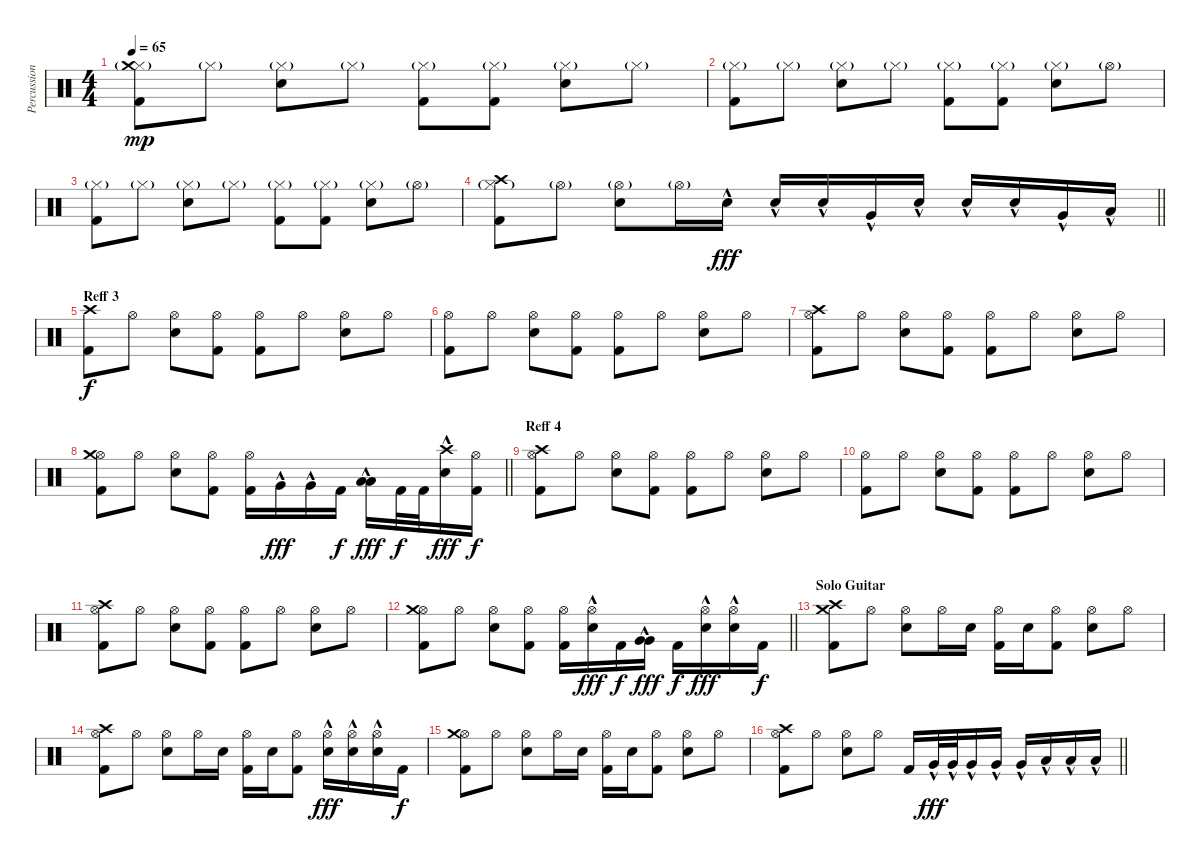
\track ("Percussion" "Percussion") {instrument percussion}
\staff {score}
\articulation defaults
\ts (4 4)
\tempo 65
\clef neutral
\ks c
("Hi-Hat (closed)"{g} "Crash medium (hit)" "Kick (hit) 2").8{dy mp} "Hi-Hat (closed)"{g}.8 ("Hi-Hat (closed)"{g} "Electric Snare (hit)").8 "Hi-Hat (closed)"{g}.8 ("Hi-Hat (closed)"{g} "Kick (hit) 2").8 ("Hi-Hat (closed)"{g} "Kick (hit) 2").8 ("Hi-Hat (closed)"{g} "Electric Snare (hit)").8 "Hi-Hat (closed)"{g}.8 |
("Hi-Hat (closed)"{g} "Kick (hit) 2").8 "Hi-Hat (closed)"{g}.8 ("Hi-Hat (closed)"{g} "Electric Snare (hit)").8 "Hi-Hat (closed)"{g}.8 ("Hi-Hat (closed)"{g} "Kick (hit) 2").8 ("Hi-Hat (closed)"{g} "Kick (hit) 2").8 ("Hi-Hat (closed)"{g} "Electric Snare (hit)").8 "Hi-Hat (open)"{g}.8 |
("Hi-Hat (closed)"{g} "Kick (hit) 2").8 "Hi-Hat (closed)"{g}.8 ("Hi-Hat (closed)"{g} "Electric Snare (hit)").8 "Hi-Hat (closed)"{g}.8 ("Hi-Hat (closed)"{g} "Kick (hit) 2").8 ("Hi-Hat (closed)"{g} "Kick (hit) 2").8 ("Hi-Hat (closed)"{g} "Electric Snare (hit)").8 "Hi-Hat (open)"{g}.8 |
\barLineRight lightlight
("Hi-Hat (closed)"{g} "Crash high (hit)" "Kick (hit) 2").8 "Hi-Hat (open)"{g}.8 ("Hi-Hat (open)"{g} "Electric Snare (hit)").8 "Hi-Hat (open)"{g}.16 "Electric Snare (hit)"{hac}.16{dy fff} "Electric Snare (hit)"{hac}.16 "Electric Snare (hit)"{hac}.16 "Very Low Tom (hit)"{hac}.16 "Electric Snare (hit)"{hac}.16 "Electric Snare (hit)"{hac}.16 "Electric Snare (hit)"{hac}.16 "Very Low Tom (hit)"{hac}.16 "Low Floor Tom (hit)"{hac}.16 |
\section ("" "Reff 3")
("Crash high (hit)" "Kick (hit) 2").8{dy f} "Hi-Hat (open)".8 ("Hi-Hat (open)" "Electric Snare (hit)").8 ("Hi-Hat (open)" "Kick (hit) 2").8 ("Hi-Hat (open)" "Kick (hit) 2").8 "Hi-Hat (open)".8 ("Hi-Hat (open)" "Electric Snare (hit)").8 "Hi-Hat (open)".8 |
("Hi-Hat (open)" "Kick (hit) 2").8 "Hi-Hat (open)".8 ("Hi-Hat (open)" "Electric Snare (hit)").8 ("Hi-Hat (open)" "Kick (hit) 2").8 ("Hi-Hat (open)" "Kick (hit) 2").8 "Hi-Hat (open)".8 ("Hi-Hat (open)" "Electric Snare (hit)").8 "Hi-Hat (open)".8 |
("Hi-Hat (open)" "Crash high (hit)" "Kick (hit) 2").8 "Hi-Hat (open)".8 ("Hi-Hat (open)" "Electric Snare (hit)").8 ("Hi-Hat (open)" "Kick (hit) 2").8 ("Hi-Hat (open)" "Kick (hit) 2").8 "Hi-Hat (open)".8 ("Hi-Hat (open)" "Electric Snare (hit)").8 "Hi-Hat (open)".8 |
\barLineRight lightlight
("Hi-Hat (open)" "Crash medium (hit)" "Kick (hit) 2").8 "Hi-Hat (open)".8 ("Hi-Hat (open)" "Electric Snare (hit)").8 ("Hi-Hat (open)" "Kick (hit) 2").8 ("Hi-Hat (open)" "Kick (hit) 2").16 "Very Low Tom (hit)"{hac}.16{dy fff} "Very Low Tom (hit)"{hac}.16 "Kick (hit) 2".16{dy f} ("Low Floor Tom (hit)"{hac} "Low Floor Tom (hit)"{hac}).16{bd 60 dy fff} "Kick (hit) 2".32{dy f} "Kick (hit) 2".32 ("Crash high (hit)" "Electric Snare (hit)"{hac}).16{dy fff} ("Hi-Hat (open)" "Kick (hit) 2").16{dy f} |
\section ("" "Reff 4")
("Hi-Hat (open)" "Crash high (hit)" "Kick (hit) 2").8 "Hi-Hat (open)".8 ("Hi-Hat (open)" "Electric Snare (hit)").8 ("Hi-Hat (open)" "Kick (hit) 2").8 ("Hi-Hat (open)" "Kick (hit) 2").8 "Hi-Hat (open)".8 ("Hi-Hat (open)" "Electric Snare (hit)").8 "Hi-Hat (open)".8 |
("Hi-Hat (open)" "Kick (hit) 2").8 "Hi-Hat (open)".8 ("Hi-Hat (open)" "Electric Snare (hit)").8 ("Hi-Hat (open)" "Kick (hit) 2").8 ("Hi-Hat (open)" "Kick (hit) 2").8 "Hi-Hat (open)".8 ("Hi-Hat (open)" "Electric Snare (hit)").8 "Hi-Hat (open)".8 |
("Hi-Hat (open)" "Crash high (hit)" "Kick (hit) 2").8 "Hi-Hat (open)".8 ("Hi-Hat (open)" "Electric Snare (hit)").8 ("Hi-Hat (open)" "Kick (hit) 2").8 ("Hi-Hat (open)" "Kick (hit) 2").8 "Hi-Hat (open)".8 ("Hi-Hat (open)" "Electric Snare (hit)").8 "Hi-Hat (open)".8 |
\barLineRight lightlight
("Hi-Hat (open)" "Crash medium (hit)" "Kick (hit) 2").8 "Hi-Hat (open)".8 ("Hi-Hat (open)" "Electric Snare (hit)").8 ("Hi-Hat (open)" "Kick (hit) 2").8 ("Hi-Hat (open)" "Kick (hit) 2").16 ("Hi-Hat (open)" "Electric Snare (hit)"{hac}).16{dy fff} "Kick (hit) 2".16{dy f} ("Very Low Tom (hit)"{hac} "Very Low Tom (hit)"{hac}).16{bd 60 dy fff} "Kick (hit) 2".16{dy f} ("Hi-Hat (open)" "Electric Snare (hit)"{hac}).16{dy fff} ("Hi-Hat (open)" "Electric Snare (hit)"{hac}).16 "Kick (hit) 2".16{dy f} |
\section ("" "Solo Guitar")
("Crash high (hit)" "Crash medium (hit)" "Kick (hit) 2").8 "Hi-Hat (open)".8 ("Hi-Hat (open)" "Electric Snare (hit)").8 "Hi-Hat (open)".16 "Electric Snare (hit)".16 ("Hi-Hat (open)" "Kick (hit) 2").16 "Electric Snare (hit)".16 ("Hi-Hat (open)" "Kick (hit) 2").8 ("Hi-Hat (open)" "Electric Snare (hit)").8 "Hi-Hat (open)".8 |
("Hi-Hat (open)" "Crash high (hit)" "Kick (hit) 2").8 "Hi-Hat (open)".8 ("Hi-Hat (open)" "Electric Snare (hit)").8 "Hi-Hat (open)".16 "Electric Snare (hit)".16 ("Hi-Hat (open)" "Kick (hit) 2").16 "Electric Snare (hit)".16 ("Hi-Hat (open)" "Kick (hit) 2").8 ("Hi-Hat (open)" "Electric Snare (hit)"{hac}).16{dy fff} ("Hi-Hat (open)" "Electric Snare (hit)"{hac}).16 ("Hi-Hat (open)" "Electric Snare (hit)"{hac}).16 "Kick (hit) 2".16{dy f} |
("Hi-Hat (open)" "Crash medium (hit)" "Kick (hit) 2").8 "Hi-Hat (open)".8 ("Hi-Hat (open)" "Electric Snare (hit)").8 "Hi-Hat (open)".16 "Electric Snare (hit)".16 ("Hi-Hat (open)" "Kick (hit) 2").16 "Electric Snare (hit)".16 ("Hi-Hat (open)" "Kick (hit) 2").8 ("Hi-Hat (open)" "Electric Snare (hit)").8 "Hi-Hat (open)".8 |
\barLineRight lightlight
("Hi-Hat (open)" "Crash high (hit)" "Kick (hit) 2").8 "Hi-Hat (open)".8 ("Hi-Hat (open)" "Electric Snare (hit)").8 "Hi-Hat (open)".8 "Kick (hit) 2".16 "Very Low Tom (hit)"{hac}.32{dy fff} "Very Low Tom (hit)"{hac}.32 "Very Low Tom (hit)"{hac}.16 "Very Low Tom (hit)"{hac}.16 "Very Low Tom (hit)"{hac}.16 "Low Floor Tom (hit)"{hac}.16 "Low Floor Tom (hit)"{hac}.16 "Low Floor Tom (hit)"{hac}.16
